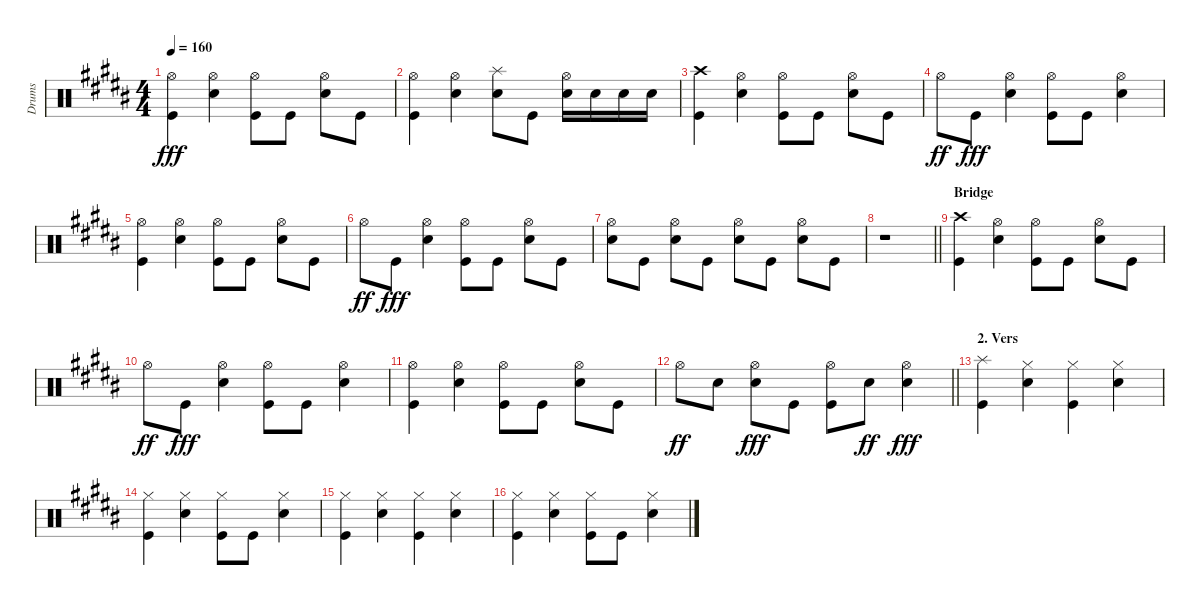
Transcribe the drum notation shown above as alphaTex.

\track ("Drums" "Drums") {instrument percussion}
\staff {score}
\articulation defaults
\ts (4 4)
\tempo 160
\clef neutral
\ks b
("Hi-Hat (open)" "Kick (hit)").4{dy fff} ("Hi-Hat (open)" "Snare (hit) 2").4 ("Hi-Hat (open)" "Kick (hit)").8 "Kick (hit)".8 ("Hi-Hat (open)" "Snare (hit) 2").8 "Kick (hit)".8 |
("Hi-Hat (open)" "Kick (hit)").4 ("Hi-Hat (open)" "Snare (hit) 2").4 ("Splash (hit)" "Snare (hit) 2").8 "Kick (hit)".8 ("Hi-Hat (open)" "Snare (hit) 2").16 "Snare (hit) 2".16 "Snare (hit) 2".16 "Snare (hit) 2".16 |
("Crash high (hit)" "Kick (hit)").4 ("Hi-Hat (open)" "Snare (hit) 2").4 ("Hi-Hat (open)" "Kick (hit)").8 "Kick (hit)".8 ("Hi-Hat (open)" "Snare (hit) 2").8 "Kick (hit)".8 |
"Hi-Hat (open)".8{dy ff} "Kick (hit)".8{dy fff} ("Hi-Hat (open)" "Snare (hit) 2").4 ("Hi-Hat (open)" "Kick (hit)").8 "Kick (hit)".8 ("Hi-Hat (open)" "Snare (hit) 2").4 |
("Hi-Hat (open)" "Kick (hit)").4 ("Hi-Hat (open)" "Snare (hit) 2").4 ("Hi-Hat (open)" "Kick (hit)").8 "Kick (hit)".8 ("Hi-Hat (open)" "Snare (hit) 2").8 "Kick (hit)".8 |
"Hi-Hat (open)".8{dy ff} "Kick (hit)".8{dy fff} ("Hi-Hat (open)" "Snare (hit) 2").4 ("Hi-Hat (open)" "Kick (hit)").8 "Kick (hit)".8 ("Hi-Hat (open)" "Snare (hit) 2").8 "Kick (hit)".8 |
("Hi-Hat (open)" "Snare (hit) 2").8 "Kick (hit)".8 ("Hi-Hat (open)" "Snare (hit) 2").8 "Kick (hit)".8 ("Hi-Hat (open)" "Snare (hit) 2").8 "Kick (hit)".8 ("Hi-Hat (open)" "Snare (hit) 2").8 "Kick (hit)".8 |
\barLineRight lightlight
r.1 |
\section ("" "Bridge")
("Crash high (hit)" "Kick (hit)").4 ("Hi-Hat (open)" "Snare (hit) 2").4 ("Hi-Hat (open)" "Kick (hit)").8 "Kick (hit)".8 ("Hi-Hat (open)" "Snare (hit) 2").8 "Kick (hit)".8 |
"Hi-Hat (open)".8{dy ff} "Kick (hit)".8{dy fff} ("Hi-Hat (open)" "Snare (hit) 2").4 ("Hi-Hat (open)" "Kick (hit)").8 "Kick (hit)".8 ("Hi-Hat (open)" "Snare (hit) 2").4 |
("Hi-Hat (open)" "Kick (hit)").4 ("Hi-Hat (open)" "Snare (hit) 2").4 ("Hi-Hat (open)" "Kick (hit)").8 "Kick (hit)".8 ("Hi-Hat (open)" "Snare (hit) 2").8 "Kick (hit)".8 |
\barLineRight lightlight "Hi-Hat (open)".8{dy ff} "Snare (hit) 2".8
("Hi-Hat (open)" "Snare (hit) 2").8{dy fff} "Kick (hit)".8 ("Hi-Hat (open)" "Kick (hit)").8 "Snare (hit) 2".8{dy ff} ("Hi-Hat (open)" "Snare (hit) 2").4{dy fff} |
\section ("" "2. Vers")
("Splash (hit)" "Kick (hit)").4 ("Hi-Hat (closed)" "Snare (hit) 2").4 ("Hi-Hat (closed)" "Kick (hit)").4 ("Hi-Hat (closed)" "Snare (hit) 2").4 |
("Hi-Hat (closed)" "Kick (hit)").4 ("Hi-Hat (closed)" "Snare (hit) 2").4 ("Hi-Hat (closed)" "Kick (hit)").8 "Kick (hit)".8 ("Hi-Hat (closed)" "Snare (hit) 2").4 |
("Hi-Hat (closed)" "Kick (hit)").4 ("Hi-Hat (closed)" "Snare (hit) 2").4 ("Hi-Hat (closed)" "Kick (hit)").4 ("Hi-Hat (closed)" "Snare (hit) 2").4 |
("Hi-Hat (closed)" "Kick (hit)").4 ("Hi-Hat (closed)" "Snare (hit) 2").4 ("Hi-Hat (closed)" "Kick (hit)").8 "Kick (hit)".8 ("Hi-Hat (closed)" "Snare (hit) 2").4
